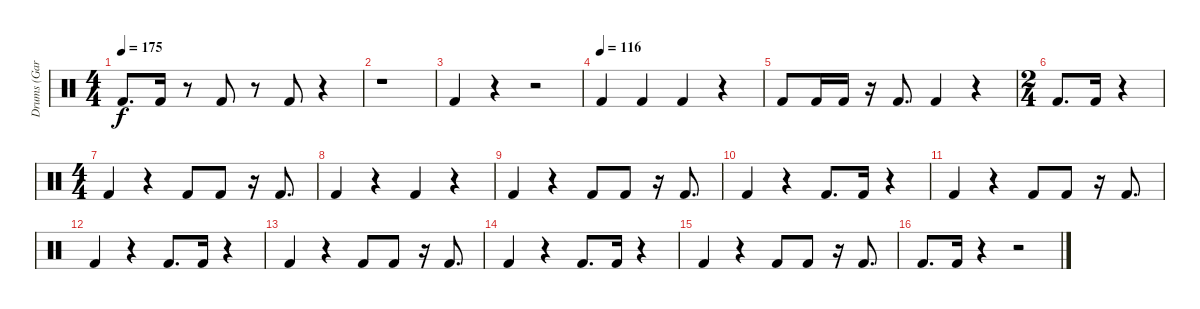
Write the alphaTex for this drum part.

\track ("Drums (Gar Samuelson)" "Drums (Gar") {instrument percussion}
\staff {score}
\articulation defaults
\ts (4 4)
\tempo 175
\clef neutral
\ks c "Kick (hit) 2".8{d dy f} "Kick (hit) 2".16
r.8 "Kick (hit) 2".8 r.8 "Kick (hit) 2".8 r.4 |
r.1 |
"Kick (hit) 2".4 r.4 r.2 |
\tempo (116)
"Kick (hit) 2".4 "Kick (hit) 2".4 "Kick (hit) 2".4 r.4 |
"Kick (hit) 2".8 "Kick (hit) 2".16 "Kick (hit) 2".16 r.16 "Kick (hit) 2".8{d} "Kick (hit) 2".4 r.4 |
\ts (2 4)
"Kick (hit) 2".8{d} "Kick (hit) 2".16 r.4 |
\ts (4 4)
"Kick (hit) 2".4 r.4 "Kick (hit) 2".8 "Kick (hit) 2".8 r.16 "Kick (hit) 2".8{d} |
"Kick (hit) 2".4 r.4 "Kick (hit) 2".4 r.4 |
"Kick (hit) 2".4 r.4 "Kick (hit) 2".8 "Kick (hit) 2".8 r.16 "Kick (hit) 2".8{d} |
"Kick (hit) 2".4 r.4 "Kick (hit) 2".8{d} "Kick (hit) 2".16 r.4 |
"Kick (hit) 2".4 r.4 "Kick (hit) 2".8 "Kick (hit) 2".8 r.16 "Kick (hit) 2".8{d} |
"Kick (hit) 2".4 r.4 "Kick (hit) 2".8{d} "Kick (hit) 2".16 r.4 |
"Kick (hit) 2".4 r.4 "Kick (hit) 2".8 "Kick (hit) 2".8 r.16 "Kick (hit) 2".8{d} |
"Kick (hit) 2".4 r.4 "Kick (hit) 2".8{d} "Kick (hit) 2".16 r.4 |
"Kick (hit) 2".4 r.4 "Kick (hit) 2".8 "Kick (hit) 2".8 r.16 "Kick (hit) 2".8{d} |
"Kick (hit) 2".8{d} "Kick (hit) 2".16 r.4 r.2
